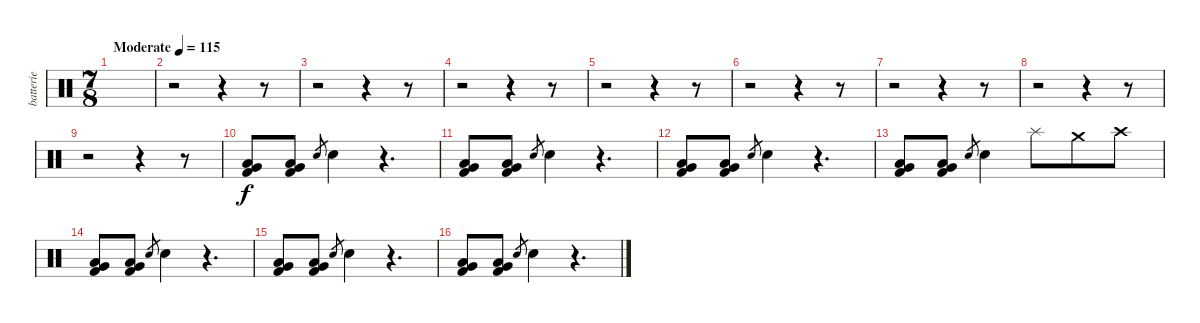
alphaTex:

\track ("batterie" "batterie") {instrument percussion}
\staff {score}
\articulation defaults
\ts (7 8)
\tempo (115 "Moderate")
\clef neutral
\ks c
|
r.2 r.4 r.8 |
r.2 r.4 r.8 |
r.2 r.4 r.8 |
r.2 r.4 r.8 |
r.2 r.4 r.8 |
r.2 r.4 r.8 |
r.2 r.4 r.8 |
r.2 r.4 r.8 |
("Kick (hit) 2" "Low Floor Tom (hit)" "Very Low Tom (hit)").8 ("Kick (hit) 2" "Low Floor Tom (hit)" "Very Low Tom (hit)").8 "Electric Snare (hit)".8{gr} "Electric Snare (hit)".4 r.4{d} |
("Kick (hit) 2" "Low Floor Tom (hit)" "Very Low Tom (hit)").8 ("Kick (hit) 2" "Low Floor Tom (hit)" "Very Low Tom (hit)").8 "Electric Snare (hit)".8{gr} "Electric Snare (hit)".4 r.4{d} |
("Kick (hit) 2" "Low Floor Tom (hit)" "Very Low Tom (hit)").8 ("Kick (hit) 2" "Low Floor Tom (hit)" "Very Low Tom (hit)").8 "Electric Snare (hit)".8{gr} "Electric Snare (hit)".4 r.4{d} |
("Kick (hit) 2" "Low Floor Tom (hit)" "Very Low Tom (hit)").8 ("Kick (hit) 2" "Low Floor Tom (hit)" "Very Low Tom (hit)").8 "Electric Snare (hit)".8{gr} "Electric Snare (hit)".4 "Splash (hit)".8 "Crash medium (hit)".8 "Crash high (hit)".8 |
("Kick (hit) 2" "Low Floor Tom (hit)" "Very Low Tom (hit)").8 ("Kick (hit) 2" "Low Floor Tom (hit)" "Very Low Tom (hit)").8 "Electric Snare (hit)".8{gr} "Electric Snare (hit)".4 r.4{d} |
("Kick (hit) 2" "Low Floor Tom (hit)" "Very Low Tom (hit)").8 ("Kick (hit) 2" "Low Floor Tom (hit)" "Very Low Tom (hit)").8 "Electric Snare (hit)".8{gr} "Electric Snare (hit)".4 r.4{d} |
("Kick (hit) 2" "Low Floor Tom (hit)" "Very Low Tom (hit)").8 ("Kick (hit) 2" "Low Floor Tom (hit)" "Very Low Tom (hit)").8 "Electric Snare (hit)".8{gr} "Electric Snare (hit)".4 r.4{d}
